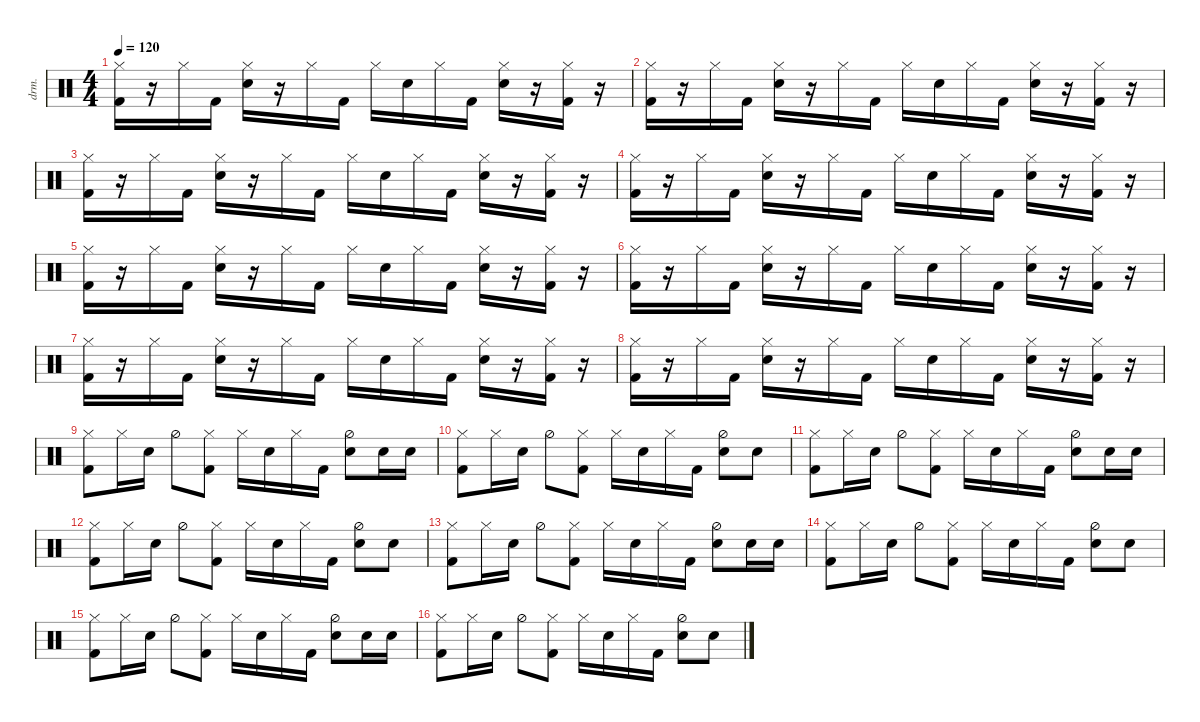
\defaultSystemsLayout 4
\hideDynamics
\bracketExtendMode nobrackets
\otherSystemsTrackNameOrientation horizontal
\track ("Drumkit" "drm.") {instrument percussion}
\staff {score}
\articulation defaults
\ts (4 4)
\tempo 120
\clef neutral
\ks c
("Hi-Hat (closed)" "Kick (hit) 2").16{dy mf beam Down} r.16{beam Down} "Hi-Hat (closed)".16{beam Down} "Kick (hit) 2".16{beam Down} ("Hi-Hat (closed)" "Snare (hit) 2").16{beam Down} r.16{beam Down} "Hi-Hat (closed)".16{beam Down} "Kick (hit) 2".16{beam Down} "Hi-Hat (closed)".16{beam Down} "Snare (hit) 2".16{beam Down} "Hi-Hat (closed)".16{beam Down} "Kick (hit) 2".16{beam Down} ("Hi-Hat (closed)" "Snare (hit) 2").16{beam Down} r.16{beam Down} ("Hi-Hat (closed)" "Kick (hit) 2").16{beam Down} r.16{beam Down} |
("Hi-Hat (closed)" "Kick (hit) 2").16{beam Down} r.16{beam Down} "Hi-Hat (closed)".16{beam Down} "Kick (hit) 2".16{beam Down} ("Hi-Hat (closed)" "Snare (hit) 2").16{beam Down} r.16{beam Down} "Hi-Hat (closed)".16{beam Down} "Kick (hit) 2".16{beam Down} "Hi-Hat (closed)".16{beam Down} "Snare (hit) 2".16{beam Down} "Hi-Hat (closed)".16{beam Down} "Kick (hit) 2".16{beam Down} ("Hi-Hat (closed)" "Snare (hit) 2").16{beam Down} r.16{beam Down} ("Hi-Hat (closed)" "Kick (hit) 2").16{beam Down} r.16{beam Down} |
("Hi-Hat (closed)" "Kick (hit) 2").16{beam Down} r.16{beam Down} "Hi-Hat (closed)".16{beam Down} "Kick (hit) 2".16{beam Down} ("Hi-Hat (closed)" "Snare (hit) 2").16{beam Down} r.16{beam Down} "Hi-Hat (closed)".16{beam Down} "Kick (hit) 2".16{beam Down} "Hi-Hat (closed)".16{beam Down} "Snare (hit) 2".16{beam Down} "Hi-Hat (closed)".16{beam Down} "Kick (hit) 2".16{beam Down} ("Hi-Hat (closed)" "Snare (hit) 2").16{beam Down} r.16{beam Down} ("Hi-Hat (closed)" "Kick (hit) 2").16{beam Down} r.16{beam Down} |
("Hi-Hat (closed)" "Kick (hit) 2").16{beam Down} r.16{beam Down} "Hi-Hat (closed)".16{beam Down} "Kick (hit) 2".16{beam Down} ("Hi-Hat (closed)" "Snare (hit) 2").16{beam Down} r.16{beam Down} "Hi-Hat (closed)".16{beam Down} "Kick (hit) 2".16{beam Down} "Hi-Hat (closed)".16{beam Down} "Snare (hit) 2".16{beam Down} "Hi-Hat (closed)".16{beam Down} "Kick (hit) 2".16{beam Down} ("Hi-Hat (closed)" "Snare (hit) 2").16{beam Down} r.16{beam Down} ("Hi-Hat (closed)" "Kick (hit) 2").16{beam Down} r.16{beam Down} |
("Hi-Hat (closed)" "Kick (hit) 2").16{beam Down} r.16{beam Down} "Hi-Hat (closed)".16{beam Down} "Kick (hit) 2".16{beam Down} ("Hi-Hat (closed)" "Snare (hit) 2").16{beam Down} r.16{beam Down} "Hi-Hat (closed)".16{beam Down} "Kick (hit) 2".16{beam Down} "Hi-Hat (closed)".16{beam Down} "Snare (hit) 2".16{beam Down} "Hi-Hat (closed)".16{beam Down} "Kick (hit) 2".16{beam Down} ("Hi-Hat (closed)" "Snare (hit) 2").16{beam Down} r.16{beam Down} ("Hi-Hat (closed)" "Kick (hit) 2").16{beam Down} r.16{beam Down} |
("Hi-Hat (closed)" "Kick (hit) 2").16{beam Down} r.16{beam Down} "Hi-Hat (closed)".16{beam Down} "Kick (hit) 2".16{beam Down} ("Hi-Hat (closed)" "Snare (hit) 2").16{beam Down} r.16{beam Down} "Hi-Hat (closed)".16{beam Down} "Kick (hit) 2".16{beam Down} "Hi-Hat (closed)".16{beam Down} "Snare (hit) 2".16{beam Down} "Hi-Hat (closed)".16{beam Down} "Kick (hit) 2".16{beam Down} ("Hi-Hat (closed)" "Snare (hit) 2").16{beam Down} r.16{beam Down} ("Hi-Hat (closed)" "Kick (hit) 2").16{beam Down} r.16{beam Down} |
("Hi-Hat (closed)" "Kick (hit) 2").16{beam Down} r.16{beam Down} "Hi-Hat (closed)".16{beam Down} "Kick (hit) 2".16{beam Down} ("Hi-Hat (closed)" "Snare (hit) 2").16{beam Down} r.16{beam Down} "Hi-Hat (closed)".16{beam Down} "Kick (hit) 2".16{beam Down} "Hi-Hat (closed)".16{beam Down} "Snare (hit) 2".16{beam Down} "Hi-Hat (closed)".16{beam Down} "Kick (hit) 2".16{beam Down} ("Hi-Hat (closed)" "Snare (hit) 2").16{beam Down} r.16{beam Down} ("Hi-Hat (closed)" "Kick (hit) 2").16{beam Down} r.16{beam Down} |
("Hi-Hat (closed)" "Kick (hit) 2").16{beam Down} r.16{beam Down} "Hi-Hat (closed)".16{beam Down} "Kick (hit) 2".16{beam Down} ("Hi-Hat (closed)" "Snare (hit) 2").16{beam Down} r.16{beam Down} "Hi-Hat (closed)".16{beam Down} "Kick (hit) 2".16{beam Down} "Hi-Hat (closed)".16{beam Down} "Snare (hit) 2".16{beam Down} "Hi-Hat (closed)".16{beam Down} "Kick (hit) 2".16{beam Down} ("Hi-Hat (closed)" "Snare (hit) 2").16{beam Down} r.16{beam Down} ("Hi-Hat (closed)" "Kick (hit) 2").16{beam Down} r.16{beam Down} |
("Kick (hit) 2" "Hi-Hat (closed)").8{beam Down} "Hi-Hat (closed)".16{beam Down} "Snare (hit) 2".16{beam Down} "Hi-Hat (half)".8{beam Down} ("Kick (hit) 2" "Hi-Hat (closed)").8{beam Down} "Hi-Hat (closed)".16{beam Down} "Snare (hit) 2".16{beam Down} "Hi-Hat (closed)".16{beam Down} "Kick (hit) 2".16{beam Down} ("Snare (hit) 2" "Hi-Hat (half)").8{beam Down} "Snare (hit) 2".16{beam Down} "Snare (hit) 2".16{beam Down} |
("Kick (hit) 2" "Hi-Hat (closed)").8{beam Down} "Hi-Hat (closed)".16{beam Down} "Snare (hit) 2".16{beam Down} "Hi-Hat (half)".8{beam Down} ("Kick (hit) 2" "Hi-Hat (closed)").8{beam Down} "Hi-Hat (closed)".16{beam Down} "Snare (hit) 2".16{beam Down} "Hi-Hat (closed)".16{beam Down} "Kick (hit) 2".16{beam Down} ("Snare (hit) 2" "Hi-Hat (half)").8{beam Down} "Snare (hit) 2".8{beam Down} |
("Kick (hit) 2" "Hi-Hat (closed)").8{beam Down} "Hi-Hat (closed)".16{beam Down} "Snare (hit) 2".16{beam Down} "Hi-Hat (half)".8{beam Down} ("Kick (hit) 2" "Hi-Hat (closed)").8{beam Down} "Hi-Hat (closed)".16{beam Down} "Snare (hit) 2".16{beam Down} "Hi-Hat (closed)".16{beam Down} "Kick (hit) 2".16{beam Down} ("Snare (hit) 2" "Hi-Hat (half)").8{beam Down} "Snare (hit) 2".16{beam Down} "Snare (hit) 2".16{beam Down} |
("Kick (hit) 2" "Hi-Hat (closed)").8{beam Down} "Hi-Hat (closed)".16{beam Down} "Snare (hit) 2".16{beam Down} "Hi-Hat (half)".8{beam Down} ("Kick (hit) 2" "Hi-Hat (closed)").8{beam Down} "Hi-Hat (closed)".16{beam Down} "Snare (hit) 2".16{beam Down} "Hi-Hat (closed)".16{beam Down} "Kick (hit) 2".16{beam Down} ("Snare (hit) 2" "Hi-Hat (half)").8{beam Down} "Snare (hit) 2".8{beam Down} |
("Kick (hit) 2" "Hi-Hat (closed)").8{beam Down} "Hi-Hat (closed)".16{beam Down} "Snare (hit) 2".16{beam Down} "Hi-Hat (half)".8{beam Down} ("Kick (hit) 2" "Hi-Hat (closed)").8{beam Down} "Hi-Hat (closed)".16{beam Down} "Snare (hit) 2".16{beam Down} "Hi-Hat (closed)".16{beam Down} "Kick (hit) 2".16{beam Down} ("Snare (hit) 2" "Hi-Hat (half)").8{beam Down} "Snare (hit) 2".16{beam Down} "Snare (hit) 2".16{beam Down} |
("Kick (hit) 2" "Hi-Hat (closed)").8{beam Down} "Hi-Hat (closed)".16{beam Down} "Snare (hit) 2".16{beam Down} "Hi-Hat (half)".8{beam Down} ("Kick (hit) 2" "Hi-Hat (closed)").8{beam Down} "Hi-Hat (closed)".16{beam Down} "Snare (hit) 2".16{beam Down} "Hi-Hat (closed)".16{beam Down} "Kick (hit) 2".16{beam Down} ("Snare (hit) 2" "Hi-Hat (half)").8{beam Down} "Snare (hit) 2".8{beam Down} |
("Kick (hit) 2" "Hi-Hat (closed)").8{beam Down} "Hi-Hat (closed)".16{beam Down} "Snare (hit) 2".16{beam Down} "Hi-Hat (half)".8{beam Down} ("Kick (hit) 2" "Hi-Hat (closed)").8{beam Down} "Hi-Hat (closed)".16{beam Down} "Snare (hit) 2".16{beam Down} "Hi-Hat (closed)".16{beam Down} "Kick (hit) 2".16{beam Down} ("Snare (hit) 2" "Hi-Hat (half)").8{beam Down} "Snare (hit) 2".16{beam Down} "Snare (hit) 2".16{beam Down} |
("Kick (hit) 2" "Hi-Hat (closed)").8{beam Down} "Hi-Hat (closed)".16{beam Down} "Snare (hit) 2".16{beam Down} "Hi-Hat (half)".8{beam Down} ("Kick (hit) 2" "Hi-Hat (closed)").8{beam Down} "Hi-Hat (closed)".16{beam Down} "Snare (hit) 2".16{beam Down} "Hi-Hat (closed)".16{beam Down} "Kick (hit) 2".16{beam Down} ("Snare (hit) 2" "Hi-Hat (half)").8{beam Down} "Snare (hit) 2".8{beam Down}
